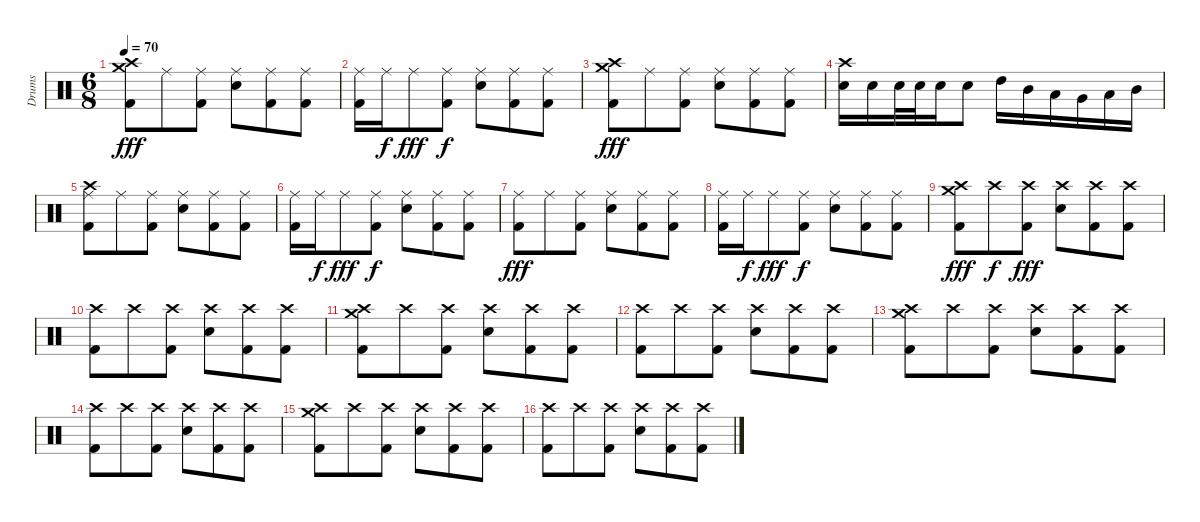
\track ("Drums" "Drums") {instrument percussion}
\staff {score}
\articulation defaults
\ts (6 8)
\tempo 70
\clef neutral
\ks c
("Crash high (hit)" "Crash medium (hit)" "Kick (hit) 2").8{dy fff} "Ride (middle)".8 ("Ride (middle)" "Kick (hit) 2").8 ("Ride (middle)" "Electric Snare (hit)").8 ("Ride (middle)" "Kick (hit) 2").8 ("Ride (middle)" "Kick (hit) 2").8 |
("Ride (middle)" "Kick (hit) 2").16 "Ride (middle)".16{dy f} "Ride (middle)".8{dy fff} ("Ride (middle)" "Kick (hit) 2").8{dy f} ("Ride (middle)" "Electric Snare (hit)").8 ("Ride (middle)" "Kick (hit) 2").8 ("Ride (middle)" "Kick (hit) 2").8 |
("Crash high (hit)" "Crash medium (hit)" "Kick (hit) 2").8{dy fff} "Ride (middle)".8 ("Ride (middle)" "Kick (hit) 2").8 ("Ride (middle)" "Electric Snare (hit)").8 ("Ride (middle)" "Kick (hit) 2").8 ("Ride (middle)" "Kick (hit) 2").8 |
("Crash high (hit)" "Electric Snare (hit)").16 "Electric Snare (hit)".16 "Electric Snare (hit)".32 "Electric Snare (hit)".32 "Electric Snare (hit)".16 "Electric Snare (hit)".8 "High Tom (hit)".16 "Mid Tom (hit)".16 "Low Tom (hit)".16 "Very Low Tom (hit)".16 "Low Tom (hit)".16 "Mid Tom (hit)".16 |
("Crash high (hit)" "Ride (middle)" "Kick (hit) 2").8 "Ride (middle)".8 ("Ride (middle)" "Kick (hit) 2").8 ("Ride (middle)" "Electric Snare (hit)").8 ("Ride (middle)" "Kick (hit) 2").8 ("Ride (middle)" "Kick (hit) 2").8 |
("Ride (middle)" "Kick (hit) 2").16 "Ride (middle)".16{dy f} "Ride (middle)".8{dy fff} ("Ride (middle)" "Kick (hit) 2").8{dy f} ("Ride (middle)" "Electric Snare (hit)").8 ("Ride (middle)" "Kick (hit) 2").8 ("Ride (middle)" "Kick (hit) 2").8 |
("Ride (middle)" "Kick (hit) 2").8{dy fff} "Ride (middle)".8 ("Ride (middle)" "Kick (hit) 2").8 ("Ride (middle)" "Electric Snare (hit)").8 ("Ride (middle)" "Kick (hit) 2").8 ("Ride (middle)" "Kick (hit) 2").8 |
("Ride (middle)" "Kick (hit) 2").16 "Ride (middle)".16{dy f} "Ride (middle)".8{dy fff} ("Ride (middle)" "Kick (hit) 2").8{dy f} ("Ride (middle)" "Electric Snare (hit)").8 ("Ride (middle)" "Kick (hit) 2").8 ("Ride (middle)" "Kick (hit) 2").8 |
("Crash medium (hit)" "Crash high (hit)" "Kick (hit) 2").8{dy fff} "Crash high (hit)".8{dy f} ("Crash high (hit)" "Kick (hit) 2").8{dy fff} ("Crash high (hit)" "Electric Snare (hit)").8 ("Crash high (hit)" "Kick (hit) 2").8 ("Crash high (hit)" "Kick (hit) 2").8 |
("Crash high (hit)" "Kick (hit) 2").8 "Crash high (hit)".8 ("Crash high (hit)" "Kick (hit) 2").8 ("Crash high (hit)" "Electric Snare (hit)").8 ("Crash high (hit)" "Kick (hit) 2").8 ("Crash high (hit)" "Kick (hit) 2").8 |
("Crash medium (hit)" "Crash high (hit)" "Kick (hit) 2").8 "Crash high (hit)".8 ("Crash high (hit)" "Kick (hit) 2").8 ("Crash high (hit)" "Electric Snare (hit)").8 ("Crash high (hit)" "Kick (hit) 2").8 ("Crash high (hit)" "Kick (hit) 2").8 |
("Crash high (hit)" "Kick (hit) 2").8 "Crash high (hit)".8 ("Crash high (hit)" "Kick (hit) 2").8 ("Crash high (hit)" "Electric Snare (hit)").8 ("Crash high (hit)" "Kick (hit) 2").8 ("Crash high (hit)" "Kick (hit) 2").8 |
("Crash medium (hit)" "Crash high (hit)" "Kick (hit) 2").8 "Crash high (hit)".8 ("Crash high (hit)" "Kick (hit) 2").8 ("Crash high (hit)" "Electric Snare (hit)").8 ("Crash high (hit)" "Kick (hit) 2").8 ("Crash high (hit)" "Kick (hit) 2").8 |
("Crash high (hit)" "Kick (hit) 2").8 "Crash high (hit)".8 ("Crash high (hit)" "Kick (hit) 2").8 ("Crash high (hit)" "Electric Snare (hit)").8 ("Crash high (hit)" "Kick (hit) 2").8 ("Crash high (hit)" "Kick (hit) 2").8 |
("Crash medium (hit)" "Crash high (hit)" "Kick (hit) 2").8 "Crash high (hit)".8 ("Crash high (hit)" "Kick (hit) 2").8 ("Crash high (hit)" "Electric Snare (hit)").8 ("Crash high (hit)" "Kick (hit) 2").8 ("Crash high (hit)" "Kick (hit) 2").8 |
("Crash high (hit)" "Kick (hit) 2").8 "Crash high (hit)".8 ("Crash high (hit)" "Kick (hit) 2").8 ("Crash high (hit)" "Electric Snare (hit)").8 ("Crash high (hit)" "Kick (hit) 2").8 ("Crash high (hit)" "Kick (hit) 2").8
